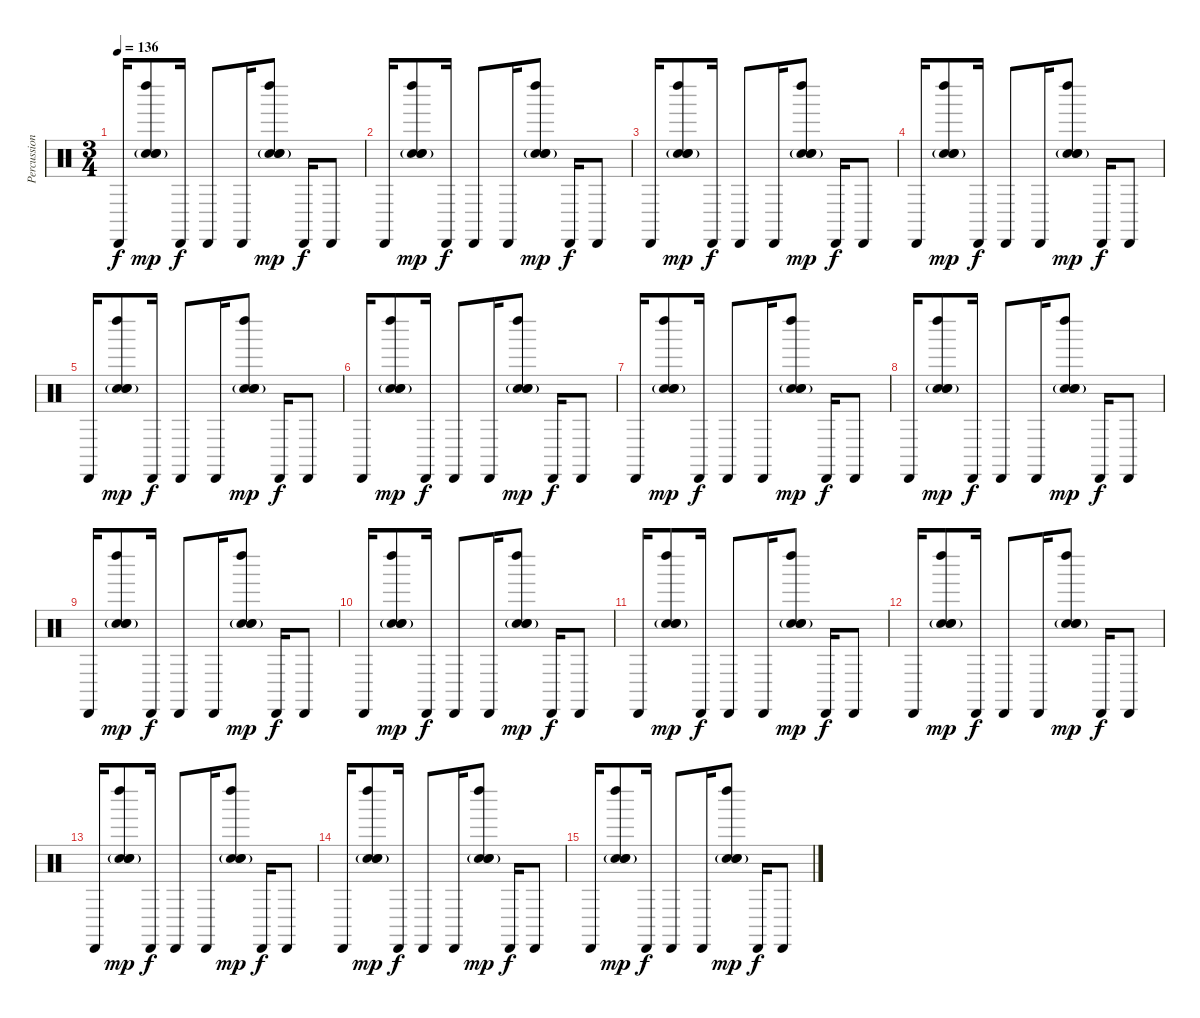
\track ("Percussions" "Percussion") {instrument percussion}
\staff {score}
\articulation defaults
\ts (3 4)
\tempo 136
\clef neutral
\ks c "Cabasa (hit)".16{dy f}
("Left Maraca (hit)" "Snare (hit) 2"{g} "Snare (hit) 2"{g} "Snare (hit) 2"{g}).8{dy mp} "Cabasa (hit)".16{dy f} "Cabasa (hit)".8 "Cabasa (hit)".16 ("Left Maraca (hit)" "Snare (hit) 2"{g} "Snare (hit) 2"{g} "Snare (hit) 2"{g}).8{dy mp} "Cabasa (hit)".16{dy f} "Cabasa (hit)".8 |
"Cabasa (hit)".16 ("Left Maraca (hit)" "Snare (hit) 2"{g} "Snare (hit) 2"{g} "Snare (hit) 2"{g}).8{dy mp} "Cabasa (hit)".16{dy f} "Cabasa (hit)".8 "Cabasa (hit)".16 ("Left Maraca (hit)" "Snare (hit) 2"{g} "Snare (hit) 2"{g} "Snare (hit) 2"{g}).8{dy mp} "Cabasa (hit)".16{dy f} "Cabasa (hit)".8 |
"Cabasa (hit)".16 ("Left Maraca (hit)" "Snare (hit) 2"{g} "Snare (hit) 2"{g} "Snare (hit) 2"{g}).8{dy mp} "Cabasa (hit)".16{dy f} "Cabasa (hit)".8 "Cabasa (hit)".16 ("Left Maraca (hit)" "Snare (hit) 2"{g} "Snare (hit) 2"{g} "Snare (hit) 2"{g}).8{dy mp} "Cabasa (hit)".16{dy f} "Cabasa (hit)".8 |
"Cabasa (hit)".16 ("Left Maraca (hit)" "Snare (hit) 2"{g} "Snare (hit) 2"{g} "Snare (hit) 2"{g}).8{dy mp} "Cabasa (hit)".16{dy f} "Cabasa (hit)".8 "Cabasa (hit)".16 ("Left Maraca (hit)" "Snare (hit) 2"{g} "Snare (hit) 2"{g} "Snare (hit) 2"{g}).8{dy mp} "Cabasa (hit)".16{dy f} "Cabasa (hit)".8 |
"Cabasa (hit)".16 ("Left Maraca (hit)" "Snare (hit) 2"{g} "Snare (hit) 2"{g} "Snare (hit) 2"{g}).8{dy mp} "Cabasa (hit)".16{dy f} "Cabasa (hit)".8 "Cabasa (hit)".16 ("Left Maraca (hit)" "Snare (hit) 2"{g} "Snare (hit) 2"{g} "Snare (hit) 2"{g}).8{dy mp} "Cabasa (hit)".16{dy f} "Cabasa (hit)".8 |
"Cabasa (hit)".16 ("Left Maraca (hit)" "Snare (hit) 2"{g} "Snare (hit) 2"{g} "Snare (hit) 2"{g}).8{dy mp} "Cabasa (hit)".16{dy f} "Cabasa (hit)".8 "Cabasa (hit)".16 ("Left Maraca (hit)" "Snare (hit) 2"{g} "Snare (hit) 2"{g} "Snare (hit) 2"{g}).8{dy mp} "Cabasa (hit)".16{dy f} "Cabasa (hit)".8 |
"Cabasa (hit)".16 ("Left Maraca (hit)" "Snare (hit) 2"{g} "Snare (hit) 2"{g} "Snare (hit) 2"{g}).8{dy mp} "Cabasa (hit)".16{dy f} "Cabasa (hit)".8 "Cabasa (hit)".16 ("Left Maraca (hit)" "Snare (hit) 2"{g} "Snare (hit) 2"{g} "Snare (hit) 2"{g}).8{dy mp} "Cabasa (hit)".16{dy f} "Cabasa (hit)".8 |
"Cabasa (hit)".16 ("Left Maraca (hit)" "Snare (hit) 2"{g} "Snare (hit) 2"{g} "Snare (hit) 2"{g}).8{dy mp} "Cabasa (hit)".16{dy f} "Cabasa (hit)".8 "Cabasa (hit)".16 ("Left Maraca (hit)" "Snare (hit) 2"{g} "Snare (hit) 2"{g} "Snare (hit) 2"{g}).8{dy mp} "Cabasa (hit)".16{dy f} "Cabasa (hit)".8 |
"Cabasa (hit)".16 ("Left Maraca (hit)" "Snare (hit) 2"{g} "Snare (hit) 2"{g} "Snare (hit) 2"{g}).8{dy mp} "Cabasa (hit)".16{dy f} "Cabasa (hit)".8 "Cabasa (hit)".16 ("Left Maraca (hit)" "Snare (hit) 2"{g} "Snare (hit) 2"{g} "Snare (hit) 2"{g}).8{dy mp} "Cabasa (hit)".16{dy f} "Cabasa (hit)".8 |
"Cabasa (hit)".16 ("Left Maraca (hit)" "Snare (hit) 2"{g} "Snare (hit) 2"{g} "Snare (hit) 2"{g}).8{dy mp} "Cabasa (hit)".16{dy f} "Cabasa (hit)".8 "Cabasa (hit)".16 ("Left Maraca (hit)" "Snare (hit) 2"{g} "Snare (hit) 2"{g} "Snare (hit) 2"{g}).8{dy mp} "Cabasa (hit)".16{dy f} "Cabasa (hit)".8 |
"Cabasa (hit)".16 ("Left Maraca (hit)" "Snare (hit) 2"{g} "Snare (hit) 2"{g} "Snare (hit) 2"{g}).8{dy mp} "Cabasa (hit)".16{dy f} "Cabasa (hit)".8 "Cabasa (hit)".16 ("Left Maraca (hit)" "Snare (hit) 2"{g} "Snare (hit) 2"{g} "Snare (hit) 2"{g}).8{dy mp} "Cabasa (hit)".16{dy f} "Cabasa (hit)".8 |
"Cabasa (hit)".16 ("Left Maraca (hit)" "Snare (hit) 2"{g} "Snare (hit) 2"{g} "Snare (hit) 2"{g}).8{dy mp} "Cabasa (hit)".16{dy f} "Cabasa (hit)".8 "Cabasa (hit)".16 ("Left Maraca (hit)" "Snare (hit) 2"{g} "Snare (hit) 2"{g} "Snare (hit) 2"{g}).8{dy mp} "Cabasa (hit)".16{dy f} "Cabasa (hit)".8 |
"Cabasa (hit)".16 ("Left Maraca (hit)" "Snare (hit) 2"{g} "Snare (hit) 2"{g} "Snare (hit) 2"{g}).8{dy mp} "Cabasa (hit)".16{dy f} "Cabasa (hit)".8 "Cabasa (hit)".16 ("Left Maraca (hit)" "Snare (hit) 2"{g} "Snare (hit) 2"{g} "Snare (hit) 2"{g}).8{dy mp} "Cabasa (hit)".16{dy f} "Cabasa (hit)".8 |
"Cabasa (hit)".16 ("Left Maraca (hit)" "Snare (hit) 2"{g} "Snare (hit) 2"{g} "Snare (hit) 2"{g}).8{dy mp} "Cabasa (hit)".16{dy f} "Cabasa (hit)".8 "Cabasa (hit)".16 ("Left Maraca (hit)" "Snare (hit) 2"{g} "Snare (hit) 2"{g} "Snare (hit) 2"{g}).8{dy mp} "Cabasa (hit)".16{dy f} "Cabasa (hit)".8 |
"Cabasa (hit)".16 ("Left Maraca (hit)" "Snare (hit) 2"{g} "Snare (hit) 2"{g} "Snare (hit) 2"{g}).8{dy mp} "Cabasa (hit)".16{dy f} "Cabasa (hit)".8 "Cabasa (hit)".16 ("Left Maraca (hit)" "Snare (hit) 2"{g} "Snare (hit) 2"{g} "Snare (hit) 2"{g}).8{dy mp} "Cabasa (hit)".16{dy f} "Cabasa (hit)".8
